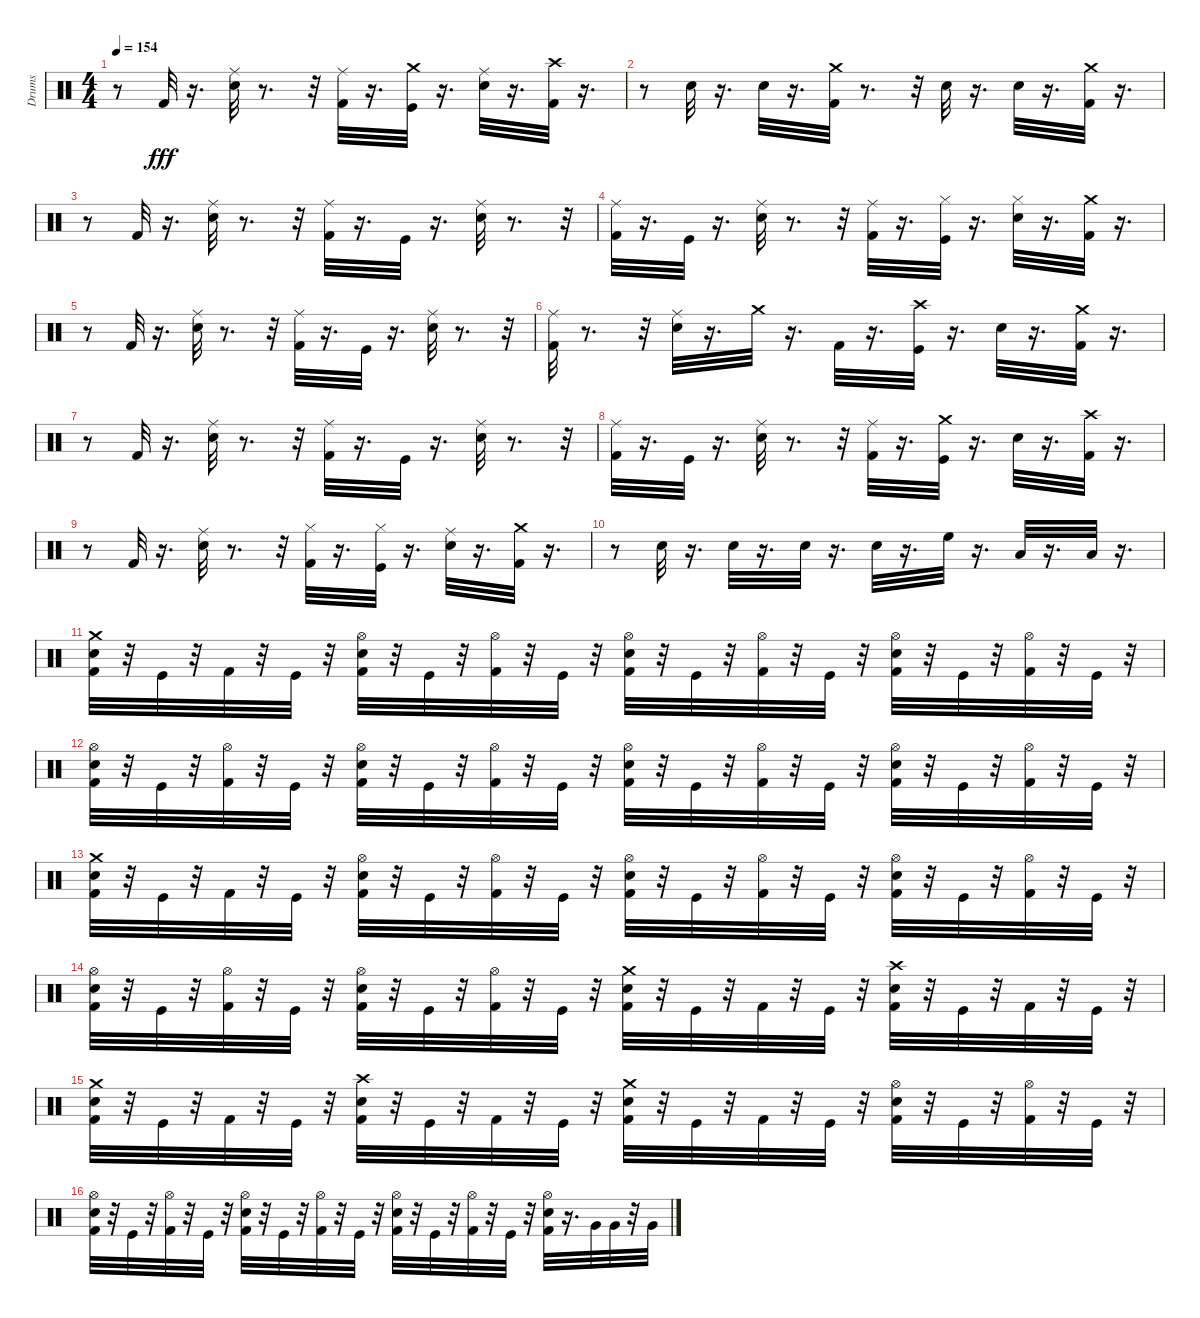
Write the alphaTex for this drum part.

\track ("Drums" "Drums") {instrument percussion}
\staff {score}
\articulation defaults
\ts (4 4)
\tempo 154
\clef neutral
\ks c
r.8{dy fff} "Kick (hit) 2".32 r.16{d} ("Snare (hit) 2" "Ride (middle)").32 r.8{d} r.32 ("Kick (hit) 2" "Ride (middle)").32 r.16{d} ("Kick (hit)" "Crash medium (hit)").32 r.16{d} ("Snare (hit) 2" "Ride (middle)").32 r.16{d} ("Kick (hit) 2" "Crash high (hit)").32 r.16{d} |
r.8 "Snare (hit) 2".32 r.16{d} "Snare (hit) 2".32 r.16{d} ("Kick (hit) 2" "Crash medium (hit)").32 r.8{d} r.32 "Snare (hit) 2".32 r.16{d} "Snare (hit) 2".32 r.16{d} ("Kick (hit) 2" "Crash medium (hit)").32 r.16{d} |
r.8 "Kick (hit) 2".32 r.16{d} ("Snare (hit) 2" "Ride (middle)").32 r.8{d} r.32 ("Kick (hit) 2" "Ride (middle)").32 r.16{d} "Kick (hit)".32 r.16{d} ("Snare (hit) 2" "Ride (middle)").32 r.8{d} r.32 |
("Kick (hit) 2" "Ride (middle)").32 r.16{d} "Kick (hit)".32 r.16{d} ("Snare (hit) 2" "Ride (middle)").32 r.8{d} r.32 ("Kick (hit) 2" "Ride (middle)").32 r.16{d} ("Kick (hit)" "Hi-Hat (closed)").32 r.16{d} ("Snare (hit) 2" "Hi-Hat (closed)").32 r.16{d} ("Kick (hit) 2" "Crash medium (hit)").32 r.16{d} |
r.8 "Kick (hit) 2".32 r.16{d} ("Snare (hit) 2" "Ride (middle)").32 r.8{d} r.32 ("Kick (hit) 2" "Ride (middle)").32 r.16{d} "Kick (hit)".32 r.16{d} ("Snare (hit) 2" "Ride (middle)").32 r.8{d} r.32 |
("Kick (hit) 2" "Ride (middle)").32 r.8{d} r.32 ("Snare (hit) 2" "Ride (middle)").32 r.16{d} "Crash medium (hit)".32 r.16{d} "Kick (hit) 2".32 r.16{d} ("Kick (hit)" "Crash high (hit)").32 r.16{d} "Snare (hit) 2".32 r.16{d} ("Kick (hit) 2" "Crash medium (hit)").32 r.16{d} |
r.8 "Kick (hit) 2".32 r.16{d} ("Snare (hit) 2" "Ride (middle)").32 r.8{d} r.32 ("Kick (hit) 2" "Ride (middle)").32 r.16{d} "Kick (hit)".32 r.16{d} ("Snare (hit) 2" "Ride (middle)").32 r.8{d} r.32 |
("Kick (hit) 2" "Ride (middle)").32 r.16{d} "Kick (hit)".32 r.16{d} ("Snare (hit) 2" "Ride (middle)").32 r.8{d} r.32 ("Kick (hit) 2" "Ride (middle)").32 r.16{d} ("Kick (hit)" "Crash medium (hit)").32 r.16{d} "Snare (hit) 2".32 r.16{d} ("Kick (hit) 2" "Crash high (hit)").32 r.16{d} |
r.8 "Kick (hit) 2".32 r.16{d} ("Snare (hit) 2" "Ride (middle)").32 r.8{d} r.32 ("Kick (hit) 2" "Hi-Hat (closed)").32 r.16{d} ("Kick (hit)" "Hi-Hat (closed)").32 r.16{d} ("Snare (hit) 2" "Ride (middle)").32 r.16{d} ("Kick (hit) 2" "Crash medium (hit)").32 r.16{d} |
r.8 "Snare (hit) 2".32 r.16{d} "Snare (hit) 2".32 r.16{d} "Snare (hit) 2".32 r.16{d} "Snare (hit) 2".32 r.16{d} "High Floor Tom (hit)".32 r.16{d} "Low Tom (hit)".32 r.16{d} "Low Floor Tom (hit)".32 r.16{d} |
("Crash medium (hit)" "Snare (hit) 2" "Kick (hit) 2").32 r.32 "Kick (hit)".32 r.32 "Kick (hit) 2".32 r.32 "Kick (hit)".32 r.32 ("Hi-Hat (open)" "Snare (hit) 2" "Kick (hit) 2").32 r.32 "Kick (hit)".32 r.32 ("Hi-Hat (open)" "Kick (hit) 2").32 r.32 "Kick (hit)".32 r.32 ("Hi-Hat (open)" "Snare (hit) 2" "Kick (hit) 2").32 r.32 "Kick (hit)".32 r.32 ("Hi-Hat (open)" "Kick (hit) 2").32 r.32 "Kick (hit)".32 r.32 ("Hi-Hat (open)" "Snare (hit) 2" "Kick (hit) 2").32 r.32 "Kick (hit)".32 r.32 ("Hi-Hat (open)" "Kick (hit) 2").32 r.32 "Kick (hit)".32 r.32 |
("Hi-Hat (open)" "Snare (hit) 2" "Kick (hit) 2").32 r.32 "Kick (hit)".32 r.32 ("Hi-Hat (open)" "Kick (hit) 2").32 r.32 "Kick (hit)".32 r.32 ("Hi-Hat (open)" "Snare (hit) 2" "Kick (hit) 2").32 r.32 "Kick (hit)".32 r.32 ("Hi-Hat (open)" "Kick (hit) 2").32 r.32 "Kick (hit)".32 r.32 ("Hi-Hat (open)" "Snare (hit) 2" "Kick (hit) 2").32 r.32 "Kick (hit)".32 r.32 ("Hi-Hat (open)" "Kick (hit) 2").32 r.32 "Kick (hit)".32 r.32 ("Hi-Hat (open)" "Snare (hit) 2" "Kick (hit) 2").32 r.32 "Kick (hit)".32 r.32 ("Hi-Hat (open)" "Kick (hit) 2").32 r.32 "Kick (hit)".32 r.32 |
("Crash medium (hit)" "Snare (hit) 2" "Kick (hit) 2").32 r.32 "Kick (hit)".32 r.32 "Kick (hit) 2".32 r.32 "Kick (hit)".32 r.32 ("Hi-Hat (open)" "Snare (hit) 2" "Kick (hit) 2").32 r.32 "Kick (hit)".32 r.32 ("Hi-Hat (open)" "Kick (hit) 2").32 r.32 "Kick (hit)".32 r.32 ("Hi-Hat (open)" "Snare (hit) 2" "Kick (hit) 2").32 r.32 "Kick (hit)".32 r.32 ("Hi-Hat (open)" "Kick (hit) 2").32 r.32 "Kick (hit)".32 r.32 ("Hi-Hat (open)" "Snare (hit) 2" "Kick (hit) 2").32 r.32 "Kick (hit)".32 r.32 ("Hi-Hat (open)" "Kick (hit) 2").32 r.32 "Kick (hit)".32 r.32 |
("Hi-Hat (open)" "Snare (hit) 2" "Kick (hit) 2").32 r.32 "Kick (hit)".32 r.32 ("Hi-Hat (open)" "Kick (hit) 2").32 r.32 "Kick (hit)".32 r.32 ("Hi-Hat (open)" "Snare (hit) 2" "Kick (hit) 2").32 r.32 "Kick (hit)".32 r.32 ("Hi-Hat (open)" "Kick (hit) 2").32 r.32 "Kick (hit)".32 r.32 ("Crash medium (hit)" "Snare (hit) 2" "Kick (hit) 2").32 r.32 "Kick (hit)".32 r.32 "Kick (hit) 2".32 r.32 "Kick (hit)".32 r.32 ("Crash high (hit)" "Snare (hit) 2" "Kick (hit) 2").32 r.32 "Kick (hit)".32 r.32 "Kick (hit) 2".32 r.32 "Kick (hit)".32 r.32 |
("Crash medium (hit)" "Snare (hit) 2" "Kick (hit) 2").32 r.32 "Kick (hit)".32 r.32 "Kick (hit) 2".32 r.32 "Kick (hit)".32 r.32 ("Crash high (hit)" "Snare (hit) 2" "Kick (hit) 2").32 r.32 "Kick (hit)".32 r.32 "Kick (hit) 2".32 r.32 "Kick (hit)".32 r.32 ("Crash medium (hit)" "Snare (hit) 2" "Kick (hit) 2").32 r.32 "Kick (hit)".32 r.32 "Kick (hit) 2".32 r.32 "Kick (hit)".32 r.32 ("Hi-Hat (open)" "Snare (hit) 2" "Kick (hit) 2").32 r.32 "Kick (hit)".32 r.32 ("Hi-Hat (open)" "Kick (hit) 2").32 r.32 "Kick (hit)".32 r.32 |
("Hi-Hat (open)" "Snare (hit) 2" "Kick (hit) 2").32 r.32 "Kick (hit)".32 r.32 ("Hi-Hat (open)" "Kick (hit) 2").32 r.32 "Kick (hit)".32 r.32 ("Hi-Hat (open)" "Snare (hit) 2" "Kick (hit) 2").32 r.32 "Kick (hit)".32 r.32 ("Hi-Hat (open)" "Kick (hit) 2").32 r.32 "Kick (hit)".32 r.32 ("Hi-Hat (open)" "Snare (hit) 2" "Kick (hit) 2").32 r.32 "Kick (hit)".32 r.32 ("Hi-Hat (open)" "Kick (hit) 2").32 r.32 "Kick (hit)".32 r.32 ("Hi-Hat (open)" "Snare (hit) 2" "Kick (hit) 2").32 r.16{d} "Very Low Tom (hit)".32 "Very Low Tom (hit)".32 r.32 "Very Low Tom (hit)".32
